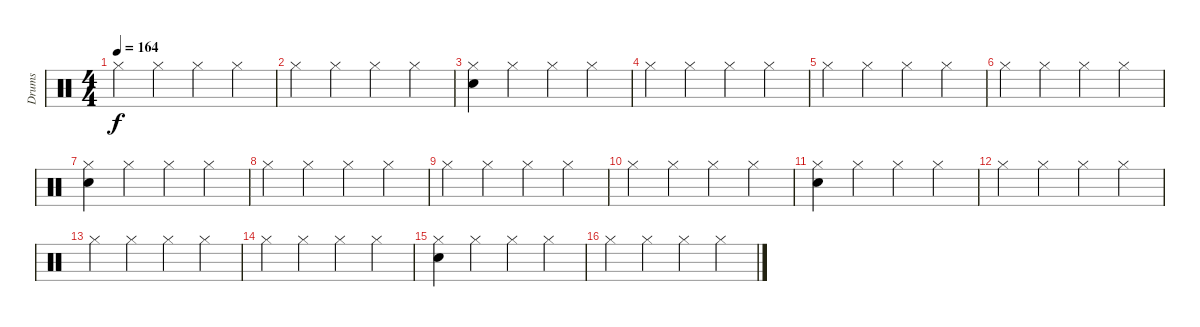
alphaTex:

\track ("Drums" "Drums") {instrument percussion}
\staff {score}
\articulation defaults
\ts (4 4)
\tempo 164
\clef neutral
\ks c "Hi-Hat (closed)".4{dy f} "Hi-Hat (closed)".4 "Hi-Hat (closed)".4 "Hi-Hat (closed)".4
|
"Hi-Hat (closed)".4 "Hi-Hat (closed)".4 "Hi-Hat (closed)".4 "Hi-Hat (closed)".4 |
("Electric Snare (hit)" "Hi-Hat (closed)").4 "Hi-Hat (closed)".4 "Hi-Hat (closed)".4 "Hi-Hat (closed)".4 |
"Hi-Hat (closed)".4 "Hi-Hat (closed)".4 "Hi-Hat (closed)".4 "Hi-Hat (closed)".4 |
"Hi-Hat (closed)".4 "Hi-Hat (closed)".4 "Hi-Hat (closed)".4 "Hi-Hat (closed)".4 |
"Hi-Hat (closed)".4 "Hi-Hat (closed)".4 "Hi-Hat (closed)".4 "Hi-Hat (closed)".4 |
("Electric Snare (hit)" "Hi-Hat (closed)").4 "Hi-Hat (closed)".4 "Hi-Hat (closed)".4 "Hi-Hat (closed)".4 |
"Hi-Hat (closed)".4 "Hi-Hat (closed)".4 "Hi-Hat (closed)".4 "Hi-Hat (closed)".4 |
"Hi-Hat (closed)".4 "Hi-Hat (closed)".4 "Hi-Hat (closed)".4 "Hi-Hat (closed)".4 |
"Hi-Hat (closed)".4 "Hi-Hat (closed)".4 "Hi-Hat (closed)".4 "Hi-Hat (closed)".4 |
("Electric Snare (hit)" "Hi-Hat (closed)").4 "Hi-Hat (closed)".4 "Hi-Hat (closed)".4 "Hi-Hat (closed)".4 |
"Hi-Hat (closed)".4 "Hi-Hat (closed)".4 "Hi-Hat (closed)".4 "Hi-Hat (closed)".4 |
"Hi-Hat (closed)".4 "Hi-Hat (closed)".4 "Hi-Hat (closed)".4 "Hi-Hat (closed)".4 |
"Hi-Hat (closed)".4 "Hi-Hat (closed)".4 "Hi-Hat (closed)".4 "Hi-Hat (closed)".4 |
("Electric Snare (hit)" "Hi-Hat (closed)").4 "Hi-Hat (closed)".4 "Hi-Hat (closed)".4 "Hi-Hat (closed)".4 |
"Hi-Hat (closed)".4 "Hi-Hat (closed)".4 "Hi-Hat (closed)".4 "Hi-Hat (closed)".4
